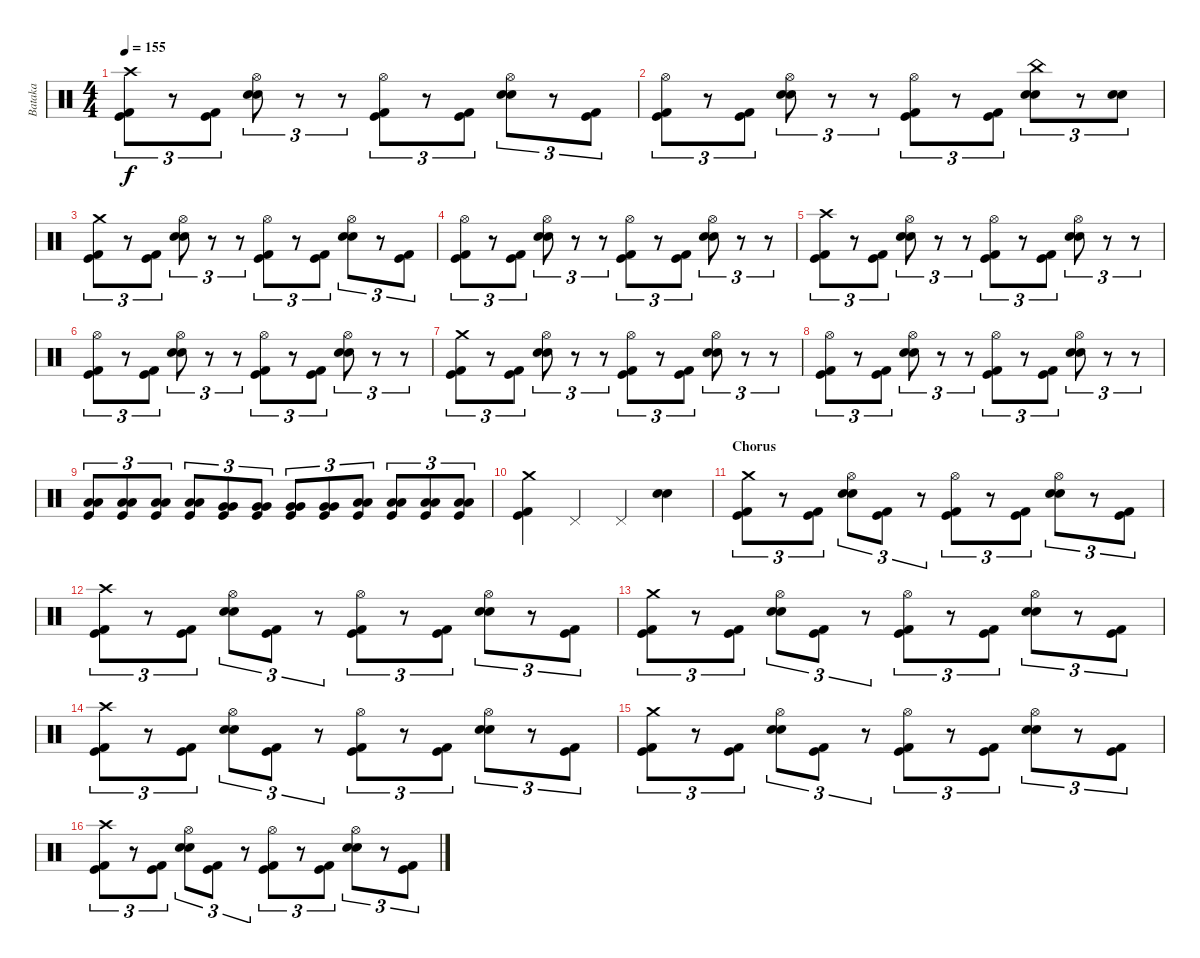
\track ("Bataka" "Bataka") {instrument percussion}
\staff {score}
\articulation defaults
\ts (4 4)
\tempo 155
\clef neutral
\ks c
("Crash high (hit)" "Kick (hit) 2" "Kick (hit)").8{tu (3 2) dy f} r.8{tu (3 2)} ("Kick (hit) 2" "Kick (hit)").8{tu (3 2)} ("Hi-Hat (open)" "Snare (hit) 2" "Snare (hit) 2").8{tu (3 2)} r.8{tu (3 2)} r.8{tu (3 2)} ("Hi-Hat (open)" "Kick (hit) 2" "Kick (hit)").8{tu (3 2)} r.8{tu (3 2)} ("Kick (hit) 2" "Kick (hit)").8{tu (3 2)} ("Hi-Hat (open)" "Snare (hit) 2" "Snare (hit) 2").8{tu (3 2)} r.8{tu (3 2)} ("Kick (hit) 2" "Kick (hit)").8{tu (3 2)} |
("Hi-Hat (open)" "Kick (hit) 2" "Kick (hit)").8{tu (3 2)} r.8{tu (3 2)} ("Kick (hit) 2" "Kick (hit)").8{tu (3 2)} ("Hi-Hat (open)" "Snare (hit) 2" "Snare (hit) 2").8{tu (3 2)} r.8{tu (3 2)} r.8{tu (3 2)} ("Hi-Hat (open)" "Kick (hit) 2" "Kick (hit)").8{tu (3 2)} r.8{tu (3 2)} ("Kick (hit) 2" "Kick (hit)").8{tu (3 2)} ("China (hit)" "Snare (hit) 2" "Snare (hit) 2").8{tu (3 2)} r.8{tu (3 2)} ("Snare (hit) 2" "Snare (hit) 2").8{tu (3 2)} |
("Crash medium (hit)" "Kick (hit) 2" "Kick (hit)").8{tu (3 2)} r.8{tu (3 2)} ("Kick (hit) 2" "Kick (hit)").8{tu (3 2)} ("Hi-Hat (open)" "Snare (hit) 2" "Snare (hit) 2").8{tu (3 2)} r.8{tu (3 2)} r.8{tu (3 2)} ("Hi-Hat (open)" "Kick (hit) 2" "Kick (hit)").8{tu (3 2)} r.8{tu (3 2)} ("Kick (hit) 2" "Kick (hit)").8{tu (3 2)} ("Hi-Hat (open)" "Snare (hit) 2" "Snare (hit) 2").8{tu (3 2)} r.8{tu (3 2)} ("Kick (hit) 2" "Kick (hit)").8{tu (3 2)} |
("Hi-Hat (open)" "Kick (hit) 2" "Kick (hit)").8{tu (3 2)} r.8{tu (3 2)} ("Kick (hit) 2" "Kick (hit)").8{tu (3 2)} ("Hi-Hat (open)" "Snare (hit) 2" "Snare (hit) 2").8{tu (3 2)} r.8{tu (3 2)} r.8{tu (3 2)} ("Hi-Hat (open)" "Kick (hit) 2" "Kick (hit)").8{tu (3 2)} r.8{tu (3 2)} ("Kick (hit) 2" "Kick (hit)").8{tu (3 2)} ("Hi-Hat (open)" "Snare (hit) 2" "Snare (hit) 2").8{tu (3 2)} r.8{tu (3 2)} r.8{tu (3 2)} |
("Crash high (hit)" "Kick (hit) 2" "Kick (hit)").8{tu (3 2)} r.8{tu (3 2)} ("Kick (hit) 2" "Kick (hit)").8{tu (3 2)} ("Hi-Hat (open)" "Snare (hit) 2" "Snare (hit) 2").8{tu (3 2)} r.8{tu (3 2)} r.8{tu (3 2)} ("Hi-Hat (open)" "Kick (hit) 2" "Kick (hit)").8{tu (3 2)} r.8{tu (3 2)} ("Kick (hit) 2" "Kick (hit)").8{tu (3 2)} ("Hi-Hat (open)" "Snare (hit) 2" "Snare (hit) 2").8{tu (3 2)} r.8{tu (3 2)} r.8{tu (3 2)} |
("Hi-Hat (open)" "Kick (hit) 2" "Kick (hit)").8{tu (3 2)} r.8{tu (3 2)} ("Kick (hit) 2" "Kick (hit)").8{tu (3 2)} ("Hi-Hat (open)" "Snare (hit) 2" "Snare (hit) 2").8{tu (3 2)} r.8{tu (3 2)} r.8{tu (3 2)} ("Hi-Hat (open)" "Kick (hit) 2" "Kick (hit)").8{tu (3 2)} r.8{tu (3 2)} ("Kick (hit) 2" "Kick (hit)").8{tu (3 2)} ("Hi-Hat (open)" "Snare (hit) 2" "Snare (hit) 2").8{tu (3 2)} r.8{tu (3 2)} r.8{tu (3 2)} |
("Crash medium (hit)" "Kick (hit) 2" "Kick (hit)").8{tu (3 2)} r.8{tu (3 2)} ("Kick (hit) 2" "Kick (hit)").8{tu (3 2)} ("Hi-Hat (open)" "Snare (hit) 2" "Snare (hit) 2").8{tu (3 2)} r.8{tu (3 2)} r.8{tu (3 2)} ("Hi-Hat (open)" "Kick (hit) 2" "Kick (hit)").8{tu (3 2)} r.8{tu (3 2)} ("Kick (hit) 2" "Kick (hit)").8{tu (3 2)} ("Hi-Hat (open)" "Snare (hit) 2" "Snare (hit) 2").8{tu (3 2)} r.8{tu (3 2)} r.8{tu (3 2)} |
("Hi-Hat (open)" "Kick (hit) 2" "Kick (hit)").8{tu (3 2)} r.8{tu (3 2)} ("Kick (hit) 2" "Kick (hit)").8{tu (3 2)} ("Hi-Hat (open)" "Snare (hit) 2" "Snare (hit) 2").8{tu (3 2)} r.8{tu (3 2)} r.8{tu (3 2)} ("Hi-Hat (open)" "Kick (hit) 2" "Kick (hit)").8{tu (3 2)} r.8{tu (3 2)} ("Kick (hit) 2" "Kick (hit)").8{tu (3 2)} ("Hi-Hat (open)" "Snare (hit) 2" "Snare (hit) 2").8{tu (3 2)} r.8{tu (3 2)} r.8{tu (3 2)} |
("Low Tom (hit)" "Low Tom (hit)" "Kick (hit)").8{tu (3 2)} ("Low Tom (hit)" "Low Tom (hit)" "Kick (hit)").8{tu (3 2)} ("Low Tom (hit)" "Low Tom (hit)" "Kick (hit)").8{tu (3 2)} ("Low Tom (hit)" "Low Tom (hit)" "Kick (hit)").8{tu (3 2)} ("Very Low Tom (hit)" "Very Low Tom (hit)" "Kick (hit)").8{tu (3 2)} ("Very Low Tom (hit)" "Very Low Tom (hit)" "Kick (hit)").8{tu (3 2)} ("Very Low Tom (hit)" "Very Low Tom (hit)" "Kick (hit)").8{tu (3 2)} ("Very Low Tom (hit)" "Very Low Tom (hit)" "Kick (hit)").8{tu (3 2)} ("Low Floor Tom (hit)" "Low Floor Tom (hit)" "Kick (hit)").8{tu (3 2)} ("Low Floor Tom (hit)" "Low Floor Tom (hit)" "Kick (hit)").8{tu (3 2)} ("Low Floor Tom (hit)" "Low Floor Tom (hit)" "Kick (hit)").8{tu (3 2)} ("Low Floor Tom (hit)" "Low Floor Tom (hit)" "Kick (hit)").8{tu (3 2)} |
("Crash medium (hit)" "Kick (hit) 2" "Kick (hit)").4 "Pedal Hi-Hat (hit)".4 "Pedal Hi-Hat (hit)".4 ("Snare (hit) 2" "Snare (hit) 2").4 |
\section ("" "Chorus")
("Crash medium (hit)" "Kick (hit) 2" "Kick (hit)").8{tu (3 2)} r.8{tu (3 2)} ("Kick (hit) 2" "Kick (hit)").8{tu (3 2)} ("Hi-Hat (open)" "Snare (hit) 2" "Snare (hit) 2").8{tu (3 2)} ("Kick (hit)" "Kick (hit) 2").8{tu (3 2)} r.8{tu (3 2)} ("Hi-Hat (open)" "Kick (hit) 2" "Kick (hit)").8{tu (3 2)} r.8{tu (3 2)} ("Kick (hit) 2" "Kick (hit)").8{tu (3 2)} ("Hi-Hat (open)" "Snare (hit) 2" "Snare (hit) 2").8{tu (3 2)} r.8{tu (3 2)} ("Kick (hit) 2" "Kick (hit)").8{tu (3 2)} |
("Crash high (hit)" "Kick (hit) 2" "Kick (hit)").8{tu (3 2)} r.8{tu (3 2)} ("Kick (hit) 2" "Kick (hit)").8{tu (3 2)} ("Hi-Hat (open)" "Snare (hit) 2" "Snare (hit) 2").8{tu (3 2)} ("Kick (hit) 2" "Kick (hit)").8{tu (3 2)} r.8{tu (3 2)} ("Hi-Hat (open)" "Kick (hit) 2" "Kick (hit)").8{tu (3 2)} r.8{tu (3 2)} ("Kick (hit) 2" "Kick (hit)").8{tu (3 2)} ("Hi-Hat (open)" "Snare (hit) 2" "Snare (hit) 2").8{tu (3 2)} r.8{tu (3 2)} ("Kick (hit) 2" "Kick (hit)").8{tu (3 2)} |
("Crash medium (hit)" "Kick (hit) 2" "Kick (hit)").8{tu (3 2)} r.8{tu (3 2)} ("Kick (hit) 2" "Kick (hit)").8{tu (3 2)} ("Hi-Hat (open)" "Snare (hit) 2" "Snare (hit) 2").8{tu (3 2)} ("Kick (hit) 2" "Kick (hit)").8{tu (3 2)} r.8{tu (3 2)} ("Hi-Hat (open)" "Kick (hit) 2" "Kick (hit)").8{tu (3 2)} r.8{tu (3 2)} ("Kick (hit) 2" "Kick (hit)").8{tu (3 2)} ("Hi-Hat (open)" "Snare (hit) 2" "Snare (hit) 2").8{tu (3 2)} r.8{tu (3 2)} ("Kick (hit) 2" "Kick (hit)").8{tu (3 2)} |
("Crash high (hit)" "Kick (hit) 2" "Kick (hit)").8{tu (3 2)} r.8{tu (3 2)} ("Kick (hit) 2" "Kick (hit)").8{tu (3 2)} ("Hi-Hat (open)" "Snare (hit) 2" "Snare (hit) 2").8{tu (3 2)} ("Kick (hit) 2" "Kick (hit)").8{tu (3 2)} r.8{tu (3 2)} ("Hi-Hat (open)" "Kick (hit) 2" "Kick (hit)").8{tu (3 2)} r.8{tu (3 2)} ("Kick (hit) 2" "Kick (hit)").8{tu (3 2)} ("Hi-Hat (open)" "Snare (hit) 2" "Snare (hit) 2").8{tu (3 2)} r.8{tu (3 2)} ("Kick (hit) 2" "Kick (hit)").8{tu (3 2)} |
("Crash medium (hit)" "Kick (hit) 2" "Kick (hit)").8{tu (3 2)} r.8{tu (3 2)} ("Kick (hit) 2" "Kick (hit)").8{tu (3 2)} ("Hi-Hat (open)" "Snare (hit) 2" "Snare (hit) 2").8{tu (3 2)} ("Kick (hit) 2" "Kick (hit)").8{tu (3 2)} r.8{tu (3 2)} ("Hi-Hat (open)" "Kick (hit) 2" "Kick (hit)").8{tu (3 2)} r.8{tu (3 2)} ("Kick (hit) 2" "Kick (hit)").8{tu (3 2)} ("Hi-Hat (open)" "Snare (hit) 2" "Snare (hit) 2").8{tu (3 2)} r.8{tu (3 2)} ("Kick (hit) 2" "Kick (hit)").8{tu (3 2)} |
("Crash high (hit)" "Kick (hit) 2" "Kick (hit)").8{tu (3 2)} r.8{tu (3 2)} ("Kick (hit) 2" "Kick (hit)").8{tu (3 2)} ("Hi-Hat (open)" "Snare (hit) 2" "Snare (hit) 2").8{tu (3 2)} ("Kick (hit) 2" "Kick (hit)").8{tu (3 2)} r.8{tu (3 2)} ("Hi-Hat (open)" "Kick (hit) 2" "Kick (hit)").8{tu (3 2)} r.8{tu (3 2)} ("Kick (hit) 2" "Kick (hit)").8{tu (3 2)} ("Hi-Hat (open)" "Snare (hit) 2" "Snare (hit) 2").8{tu (3 2)} r.8{tu (3 2)} ("Kick (hit) 2" "Kick (hit)").8{tu (3 2)}
